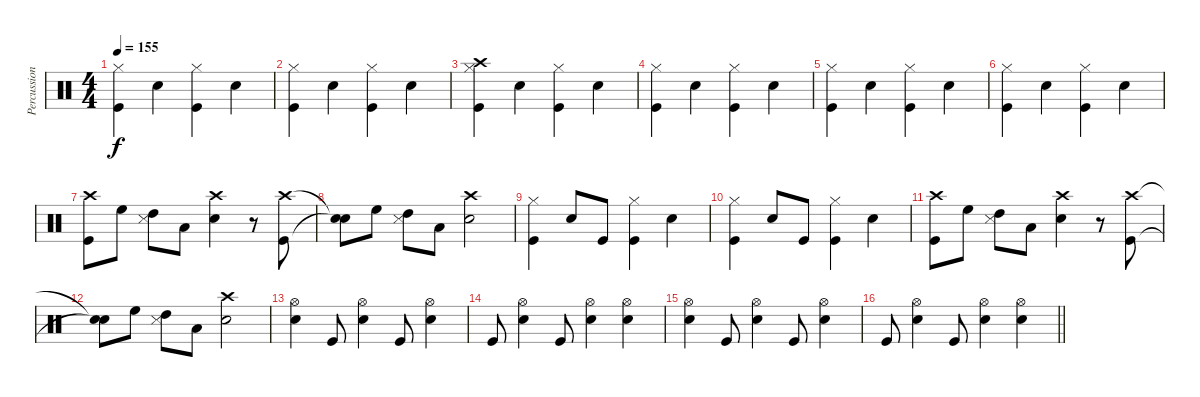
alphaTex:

\track ("Percussioni" "Percussion") {instrument percussion}
\staff {score}
\articulation defaults
\ts (4 4)
\tempo 155
\clef neutral
\ks c
("Hi-Hat (closed)" "Kick (hit)").4{dy f} "Snare (hit) 2".4 ("Hi-Hat (closed)" "Kick (hit)").4 "Snare (hit) 2".4 |
("Hi-Hat (closed)" "Kick (hit)").4 "Snare (hit) 2".4 ("Hi-Hat (closed)" "Kick (hit)").4 "Snare (hit) 2".4 |
("Hi-Hat (closed)" "Kick (hit)" "Crash high (hit)").4 "Snare (hit) 2".4 ("Hi-Hat (closed)" "Kick (hit)").4 "Snare (hit) 2".4 |
("Hi-Hat (closed)" "Kick (hit)").4 "Snare (hit) 2".4 ("Hi-Hat (closed)" "Kick (hit)").4 "Snare (hit) 2".4 |
("Hi-Hat (closed)" "Kick (hit)").4 "Snare (hit) 2".4 ("Hi-Hat (closed)" "Kick (hit)").4 "Snare (hit) 2".4 |
("Hi-Hat (closed)" "Kick (hit)").4 "Snare (hit) 2".4 ("Hi-Hat (closed)" "Kick (hit)").4 "Snare (hit) 2".4 |
("Crash high (hit)" "Kick (hit)").8 "High Floor Tom (hit)".8 ("High Tom (hit)" "Snare (side stick) 3").8 "Low Tom (hit)".8 ("Crash high (hit)" "Snare (hit) 2").4 r.8 ("Crash high (hit)" "Kick (hit)").8 |
("Snare (hit)"{t} "Snare (hit)"{t}).8 "High Floor Tom (hit)".8 ("High Tom (hit)" "Snare (side stick) 3").8 "Low Tom (hit)".8 ("Crash high (hit)" "Snare (hit) 2").2 |
("Hi-Hat (closed)" "Kick (hit)").4 "Snare (hit) 2".8 "Kick (hit)".8 ("Hi-Hat (closed)" "Kick (hit)").4 "Snare (hit) 2".4 |
("Hi-Hat (closed)" "Kick (hit)").4 "Snare (hit) 2".8 "Kick (hit)".8 ("Hi-Hat (closed)" "Kick (hit)").4 "Snare (hit) 2".4 |
("Crash high (hit)" "Kick (hit)").8 "High Floor Tom (hit)".8 ("High Tom (hit)" "Snare (side stick) 3").8 "Low Tom (hit)".8 ("Crash high (hit)" "Snare (hit) 2").4 r.8 ("Crash high (hit)" "Kick (hit)").8 |
("Snare (hit)"{t} "Snare (hit)"{t}).8 "High Floor Tom (hit)".8 ("High Tom (hit)" "Snare (side stick) 3").8 "Low Tom (hit)".8 ("Crash high (hit)" "Snare (hit) 2").2 |
("Snare (hit) 2" "Hi-Hat (open)").4 "Kick (hit)".8 ("Snare (hit) 2" "Hi-Hat (open)").4 "Kick (hit)".8 ("Snare (hit) 2" "Hi-Hat (open)").4 |
"Kick (hit)".8 ("Snare (hit) 2" "Hi-Hat (open)").4 "Kick (hit)".8 ("Snare (hit) 2" "Hi-Hat (open)").4 ("Snare (hit) 2" "Hi-Hat (open)").4 |
("Snare (hit) 2" "Hi-Hat (open)").4 "Kick (hit)".8 ("Snare (hit) 2" "Hi-Hat (open)").4 "Kick (hit)".8 ("Snare (hit) 2" "Hi-Hat (open)").4 |
\barLineRight lightlight "Kick (hit)".8
("Snare (hit) 2" "Hi-Hat (open)").4 "Kick (hit)".8 ("Snare (hit) 2" "Hi-Hat (open)").4 ("Snare (hit) 2" "Hi-Hat (open)").4
